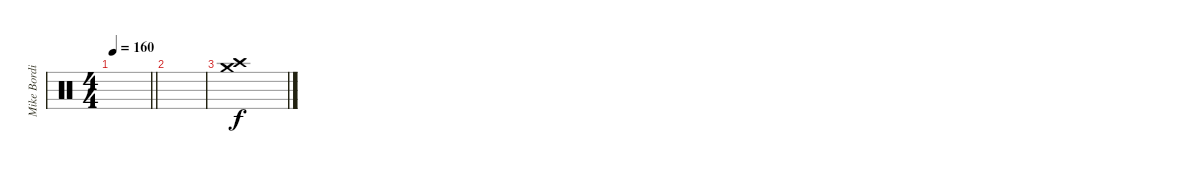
\track ("Mike Bordin - Percussion Crash" "Mike Bordi") {instrument percussion}
\staff {score}
\articulation defaults
\ts (4 4)
\tempo 160
\clef neutral
\barLineRight lightlight
\ks c
|
|
("Crash medium (hit)" "Crash high (hit)").1{dy f}
